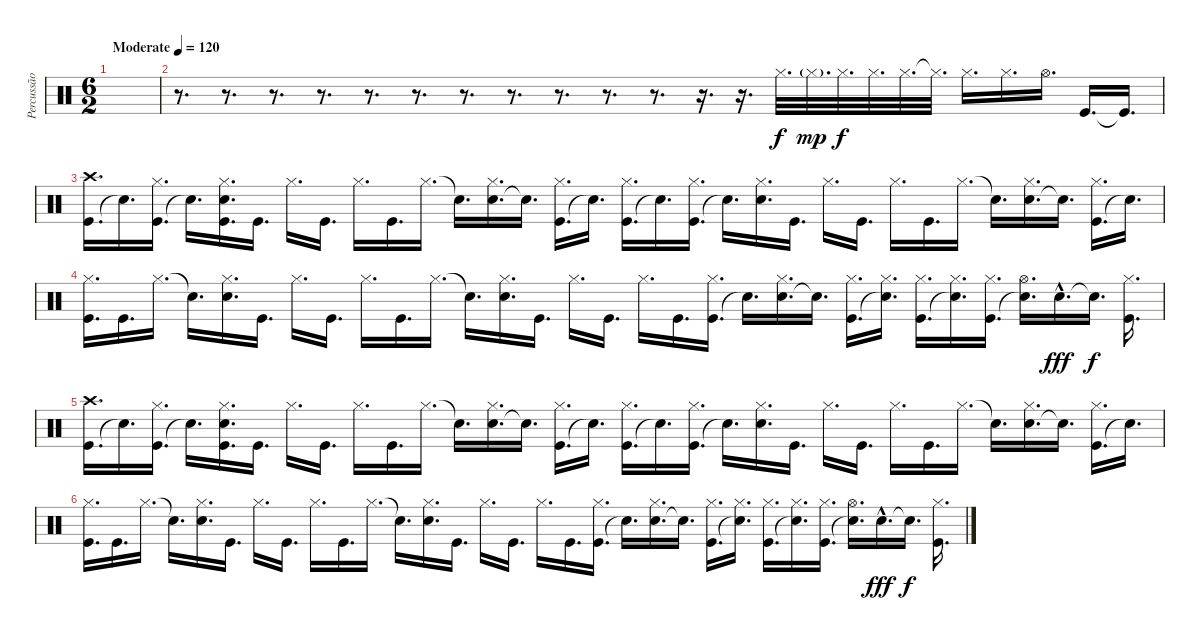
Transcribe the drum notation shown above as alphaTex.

\track ("Percussão" "Percussão") {instrument percussion}
\staff {score}
\articulation defaults
\ts (6 2)
\tempo (120 "Moderate")
\clef neutral
\ks c
|
r.8{d} r.8{d} r.8{d} r.8{d} r.8{d} r.8{d} r.8{d} r.8{d} r.8{d} r.8{d} r.8{d} r.16{d} r.16{d} "Hi-Hat (closed)".32{d} "Hi-Hat (closed)"{g}.32{d dy mp} "Hi-Hat (closed)".32{d dy f} "Hi-Hat (closed)".32{d} "Hi-Hat (closed)".32{d} "Hi-Hat (closed)"{t}.32{d} "Hi-Hat (closed)".16{d} "Hi-Hat (closed)".16{d} "Hi-Hat (open)".16{d} "Kick (hit)".16{d} "Kick (hit)"{t}.16{d} |
("Kick (hit)" "Crash high (hit)").16{d} "Snare (hit)"{t}.16{d} ("Kick (hit)" "Hi-Hat (closed)").16{d} "Snare (hit)"{t}.16{d} ("Kick (hit)" "Electric Snare (hit)" "Hi-Hat (closed)").16{d} "Kick (hit)".16{d} "Hi-Hat (closed)".16{d} "Kick (hit)".16{d} "Hi-Hat (closed)".16{d} "Kick (hit)".16{d} "Hi-Hat (closed)".16{d} "Snare (hit)"{t}.16{d} ("Electric Snare (hit)" "Hi-Hat (closed)").16{d} "Snare (hit)"{t}.16{d} ("Kick (hit)" "Hi-Hat (closed)").16{d} "Snare (hit)"{t}.16{d} ("Kick (hit)" "Hi-Hat (closed)").16{d} "Snare (hit)"{t}.16{d} ("Kick (hit)" "Hi-Hat (closed)").16{d} "Snare (hit)"{t}.16{d} ("Electric Snare (hit)" "Hi-Hat (closed)").16{d} "Kick (hit)".16{d} "Hi-Hat (closed)".16{d} "Kick (hit)".16{d} "Hi-Hat (closed)".16{d} "Kick (hit)".16{d} "Hi-Hat (closed)".16{d} "Snare (hit)"{t}.16{d} ("Electric Snare (hit)" "Hi-Hat (closed)").16{d} "Snare (hit)"{t}.16{d} ("Kick (hit)" "Hi-Hat (closed)").16{d} "Snare (hit)"{t}.16{d} |
("Kick (hit)" "Hi-Hat (closed)").16{d} "Kick (hit)".16{d} "Hi-Hat (closed)".16{d} "Snare (hit)"{t}.16{d} ("Electric Snare (hit)" "Hi-Hat (closed)").16{d} "Kick (hit)".16{d} "Hi-Hat (closed)".16{d} "Kick (hit)".16{d} "Hi-Hat (closed)".16{d} "Kick (hit)".16{d} "Hi-Hat (closed)".16{d} "Snare (hit)"{t}.16{d} ("Electric Snare (hit)" "Hi-Hat (closed)").16{d} "Kick (hit)".16{d} "Hi-Hat (closed)".16{d} "Kick (hit)".16{d} "Hi-Hat (closed)".16{d} "Kick (hit)".16{d} ("Kick (hit)" "Hi-Hat (closed)").16{d} "Snare (hit)"{t}.16{d} ("Electric Snare (hit)" "Hi-Hat (closed)").16{d} "Snare (hit)"{t}.16{d} ("Kick (hit)" "Hi-Hat (closed)").16{d} ("Snare (hit)"{t} "Hi-Hat (closed)").16{d} ("Kick (hit)" "Hi-Hat (closed)").16{d} ("Snare (hit)"{t} "Hi-Hat (closed)").16{d} ("Kick (hit)" "Hi-Hat (closed)").16{d} ("Snare (hit)"{t} "Hi-Hat (open)").16{d} "Electric Snare (hit)"{hac}.16{d dy fff} "Snare (hit)"{t}.16{d dy f} ("Kick (hit)" "Hi-Hat (closed)").16{d} |
("Kick (hit)" "Crash high (hit)").16{d} "Snare (hit)"{t}.16{d} ("Kick (hit)" "Hi-Hat (closed)").16{d} "Snare (hit)"{t}.16{d} ("Kick (hit)" "Electric Snare (hit)" "Hi-Hat (closed)").16{d} "Kick (hit)".16{d} "Hi-Hat (closed)".16{d} "Kick (hit)".16{d} "Hi-Hat (closed)".16{d} "Kick (hit)".16{d} "Hi-Hat (closed)".16{d} "Snare (hit)"{t}.16{d} ("Electric Snare (hit)" "Hi-Hat (closed)").16{d} "Snare (hit)"{t}.16{d} ("Kick (hit)" "Hi-Hat (closed)").16{d} "Snare (hit)"{t}.16{d} ("Kick (hit)" "Hi-Hat (closed)").16{d} "Snare (hit)"{t}.16{d} ("Kick (hit)" "Hi-Hat (closed)").16{d} "Snare (hit)"{t}.16{d} ("Electric Snare (hit)" "Hi-Hat (closed)").16{d} "Kick (hit)".16{d} "Hi-Hat (closed)".16{d} "Kick (hit)".16{d} "Hi-Hat (closed)".16{d} "Kick (hit)".16{d} "Hi-Hat (closed)".16{d} "Snare (hit)"{t}.16{d} ("Electric Snare (hit)" "Hi-Hat (closed)").16{d} "Snare (hit)"{t}.16{d} ("Kick (hit)" "Hi-Hat (closed)").16{d} "Snare (hit)"{t}.16{d} |
("Kick (hit)" "Hi-Hat (closed)").16{d} "Kick (hit)".16{d} "Hi-Hat (closed)".16{d} "Snare (hit)"{t}.16{d} ("Electric Snare (hit)" "Hi-Hat (closed)").16{d} "Kick (hit)".16{d} "Hi-Hat (closed)".16{d} "Kick (hit)".16{d} "Hi-Hat (closed)".16{d} "Kick (hit)".16{d} "Hi-Hat (closed)".16{d} "Snare (hit)"{t}.16{d} ("Electric Snare (hit)" "Hi-Hat (closed)").16{d} "Kick (hit)".16{d} "Hi-Hat (closed)".16{d} "Kick (hit)".16{d} "Hi-Hat (closed)".16{d} "Kick (hit)".16{d} ("Kick (hit)" "Hi-Hat (closed)").16{d} "Snare (hit)"{t}.16{d} ("Electric Snare (hit)" "Hi-Hat (closed)").16{d} "Snare (hit)"{t}.16{d} ("Kick (hit)" "Hi-Hat (closed)").16{d} ("Snare (hit)"{t} "Hi-Hat (closed)").16{d} ("Kick (hit)" "Hi-Hat (closed)").16{d} ("Snare (hit)"{t} "Hi-Hat (closed)").16{d} ("Kick (hit)" "Hi-Hat (closed)").16{d} ("Snare (hit)"{t} "Hi-Hat (open)").16{d} "Electric Snare (hit)"{hac}.16{d dy fff} "Snare (hit)"{t}.16{d dy f} ("Kick (hit)" "Hi-Hat (closed)").16{d}
